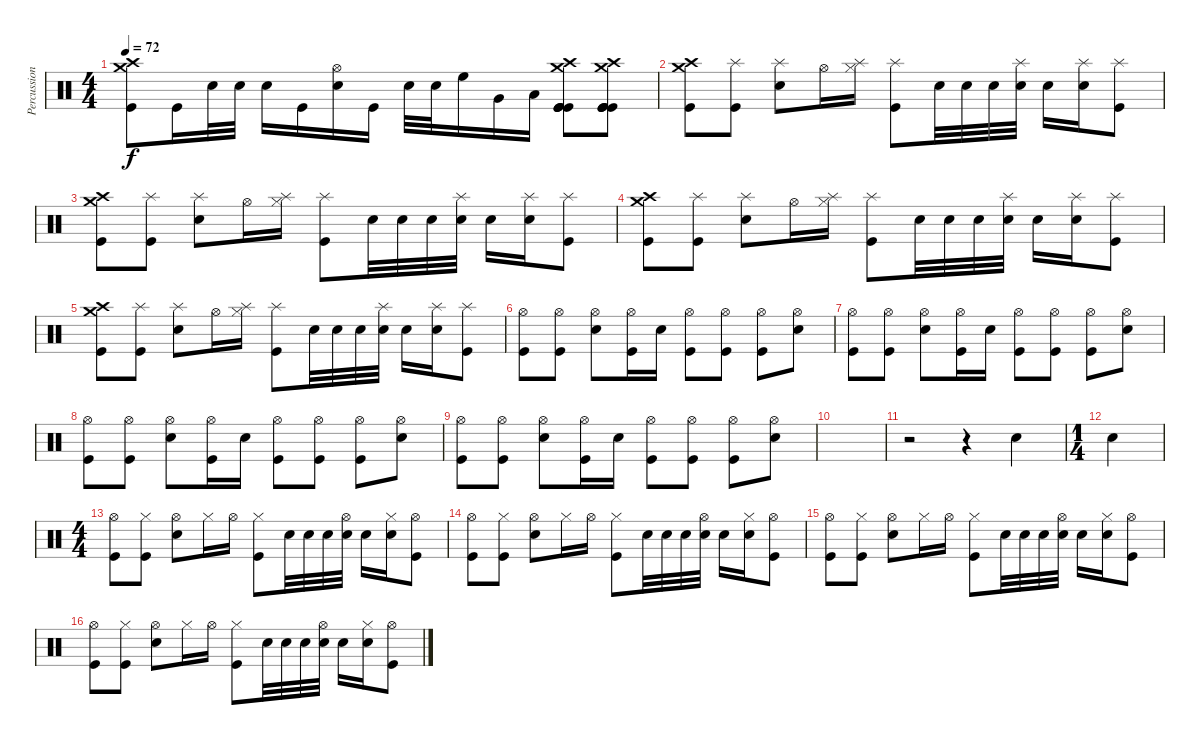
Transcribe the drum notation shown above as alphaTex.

\track ("Percussions" "Percussion") {instrument percussion}
\staff {score}
\articulation defaults
\ts (4 4)
\tempo 72
\clef neutral
\ks c
("Crash medium (hit)" "Crash high (hit)" "Kick (hit)").8{dy f} "Kick (hit)".16 "Electric Snare (hit)".32 "Snare (hit) 2".32 "Electric Snare (hit)".16 "Kick (hit)".16 ("Hi-Hat (open)" "Electric Snare (hit)").16 "Kick (hit)".16 "Electric Snare (hit)".32 "Snare (hit) 2".32 "High Floor Tom (hit)".16 "Very Low Tom (hit)".16 "Low Floor Tom (hit)".16 ("Crash medium (hit)" "Crash high (hit)" "Kick (hit)" "Kick (hit)" "Kick (hit)" "Kick (hit)").8 ("Crash medium (hit)" "Crash high (hit)" "Kick (hit)" "Kick (hit)" "Kick (hit)" "Kick (hit)").8 |
("Crash medium (hit)" "Crash high (hit)" "Kick (hit)").8 ("Splash (hit)" "Kick (hit)").8 ("Splash (hit)" "Electric Snare (hit)").8 "Hi-Hat (open)".16 ("Hi-Hat (closed)" "Splash (hit)").16 ("Splash (hit)" "Kick (hit)").8 "Electric Snare (hit)".32 "Electric Snare (hit)".32 "Electric Snare (hit)".32 ("Splash (hit)" "Electric Snare (hit)").32 "Electric Snare (hit)".16 ("Splash (hit)" "Electric Snare (hit)").16 ("Splash (hit)" "Kick (hit)").8 |
("Crash medium (hit)" "Crash high (hit)" "Kick (hit)").8 ("Splash (hit)" "Kick (hit)").8 ("Splash (hit)" "Electric Snare (hit)").8 "Hi-Hat (open)".16 ("Hi-Hat (closed)" "Splash (hit)").16 ("Splash (hit)" "Kick (hit)").8 "Electric Snare (hit)".32 "Electric Snare (hit)".32 "Electric Snare (hit)".32 ("Splash (hit)" "Electric Snare (hit)").32 "Electric Snare (hit)".16 ("Splash (hit)" "Electric Snare (hit)").16 ("Splash (hit)" "Kick (hit)").8 |
("Crash medium (hit)" "Crash high (hit)" "Kick (hit)").8 ("Splash (hit)" "Kick (hit)").8 ("Splash (hit)" "Electric Snare (hit)").8 "Hi-Hat (open)".16 ("Hi-Hat (closed)" "Splash (hit)").16 ("Splash (hit)" "Kick (hit)").8 "Electric Snare (hit)".32 "Electric Snare (hit)".32 "Electric Snare (hit)".32 ("Splash (hit)" "Electric Snare (hit)").32 "Electric Snare (hit)".16 ("Splash (hit)" "Electric Snare (hit)").16 ("Splash (hit)" "Kick (hit)").8 |
("Crash medium (hit)" "Crash high (hit)" "Kick (hit)").8 ("Splash (hit)" "Kick (hit)").8 ("Splash (hit)" "Electric Snare (hit)").8 "Hi-Hat (open)".16 ("Hi-Hat (closed)" "Splash (hit)").16 ("Splash (hit)" "Kick (hit)").8 "Electric Snare (hit)".32 "Electric Snare (hit)".32 "Electric Snare (hit)".32 ("Splash (hit)" "Electric Snare (hit)").32 "Electric Snare (hit)".16 ("Splash (hit)" "Electric Snare (hit)").16 ("Splash (hit)" "Kick (hit)").8 |
("Hi-Hat (open)" "Kick (hit)").8 ("Hi-Hat (open)" "Kick (hit)").8 ("Hi-Hat (open)" "Electric Snare (hit)").8 ("Hi-Hat (open)" "Kick (hit)").16 "Electric Snare (hit)".16 ("Hi-Hat (open)" "Kick (hit)").8 ("Hi-Hat (open)" "Kick (hit)").8 ("Hi-Hat (open)" "Kick (hit)").8 ("Hi-Hat (open)" "Electric Snare (hit)").8 |
("Hi-Hat (open)" "Kick (hit)").8 ("Hi-Hat (open)" "Kick (hit)").8 ("Hi-Hat (open)" "Electric Snare (hit)").8 ("Hi-Hat (open)" "Kick (hit)").16 "Electric Snare (hit)".16 ("Hi-Hat (open)" "Kick (hit)").8 ("Hi-Hat (open)" "Kick (hit)").8 ("Hi-Hat (open)" "Kick (hit)").8 ("Hi-Hat (open)" "Electric Snare (hit)").8 |
("Hi-Hat (open)" "Kick (hit)").8 ("Hi-Hat (open)" "Kick (hit)").8 ("Hi-Hat (open)" "Electric Snare (hit)").8 ("Hi-Hat (open)" "Kick (hit)").16 "Electric Snare (hit)".16 ("Hi-Hat (open)" "Kick (hit)").8 ("Hi-Hat (open)" "Kick (hit)").8 ("Hi-Hat (open)" "Kick (hit)").8 ("Hi-Hat (open)" "Electric Snare (hit)").8 |
("Hi-Hat (open)" "Kick (hit)").8 ("Hi-Hat (open)" "Kick (hit)").8 ("Hi-Hat (open)" "Electric Snare (hit)").8 ("Hi-Hat (open)" "Kick (hit)").16 "Electric Snare (hit)".16 ("Hi-Hat (open)" "Kick (hit)").8 ("Hi-Hat (open)" "Kick (hit)").8 ("Hi-Hat (open)" "Kick (hit)").8 ("Hi-Hat (open)" "Electric Snare (hit)").8 |
|
r.2 r.4 "Hand Clap (hit)".4{balance 0} |
\ts (1 4)
"Hand Clap (hit)".4{balance 16} |
\ts (4 4)
("Hi-Hat (open)" "Kick (hit)").8{balance 8} ("Hi-Hat (closed)" "Kick (hit)").8 ("Hi-Hat (open)" "Electric Snare (hit)").8 "Hi-Hat (closed)".16 "Hi-Hat (open)".16 ("Hi-Hat (closed)" "Kick (hit)").8 "Electric Snare (hit)".32 "Electric Snare (hit)".32 "Electric Snare (hit)".32 ("Hi-Hat (open)" "Electric Snare (hit)").32 "Electric Snare (hit)".16 ("Hi-Hat (closed)" "Electric Snare (hit)").16 ("Hi-Hat (open)" "Kick (hit)").8 |
("Hi-Hat (open)" "Kick (hit)").8 ("Hi-Hat (closed)" "Kick (hit)").8 ("Hi-Hat (open)" "Electric Snare (hit)").8 "Hi-Hat (closed)".16 "Hi-Hat (open)".16 ("Hi-Hat (closed)" "Kick (hit)").8 "Electric Snare (hit)".32 "Electric Snare (hit)".32 "Electric Snare (hit)".32 ("Hi-Hat (open)" "Electric Snare (hit)").32 "Electric Snare (hit)".16 ("Hi-Hat (closed)" "Electric Snare (hit)").16 ("Hi-Hat (open)" "Kick (hit)").8 |
("Hi-Hat (open)" "Kick (hit)").8 ("Hi-Hat (closed)" "Kick (hit)").8 ("Hi-Hat (open)" "Electric Snare (hit)").8 "Hi-Hat (closed)".16 "Hi-Hat (open)".16 ("Hi-Hat (closed)" "Kick (hit)").8 "Electric Snare (hit)".32 "Electric Snare (hit)".32 "Electric Snare (hit)".32 ("Hi-Hat (open)" "Electric Snare (hit)").32 "Electric Snare (hit)".16 ("Hi-Hat (closed)" "Electric Snare (hit)").16 ("Hi-Hat (open)" "Kick (hit)").8 |
("Hi-Hat (open)" "Kick (hit)").8 ("Hi-Hat (closed)" "Kick (hit)").8 ("Hi-Hat (open)" "Electric Snare (hit)").8 "Hi-Hat (closed)".16 "Hi-Hat (open)".16 ("Hi-Hat (closed)" "Kick (hit)").8 "Electric Snare (hit)".32 "Electric Snare (hit)".32 "Electric Snare (hit)".32 ("Hi-Hat (open)" "Electric Snare (hit)").32 "Electric Snare (hit)".16 ("Hi-Hat (closed)" "Electric Snare (hit)").16 ("Hi-Hat (open)" "Kick (hit)").8
